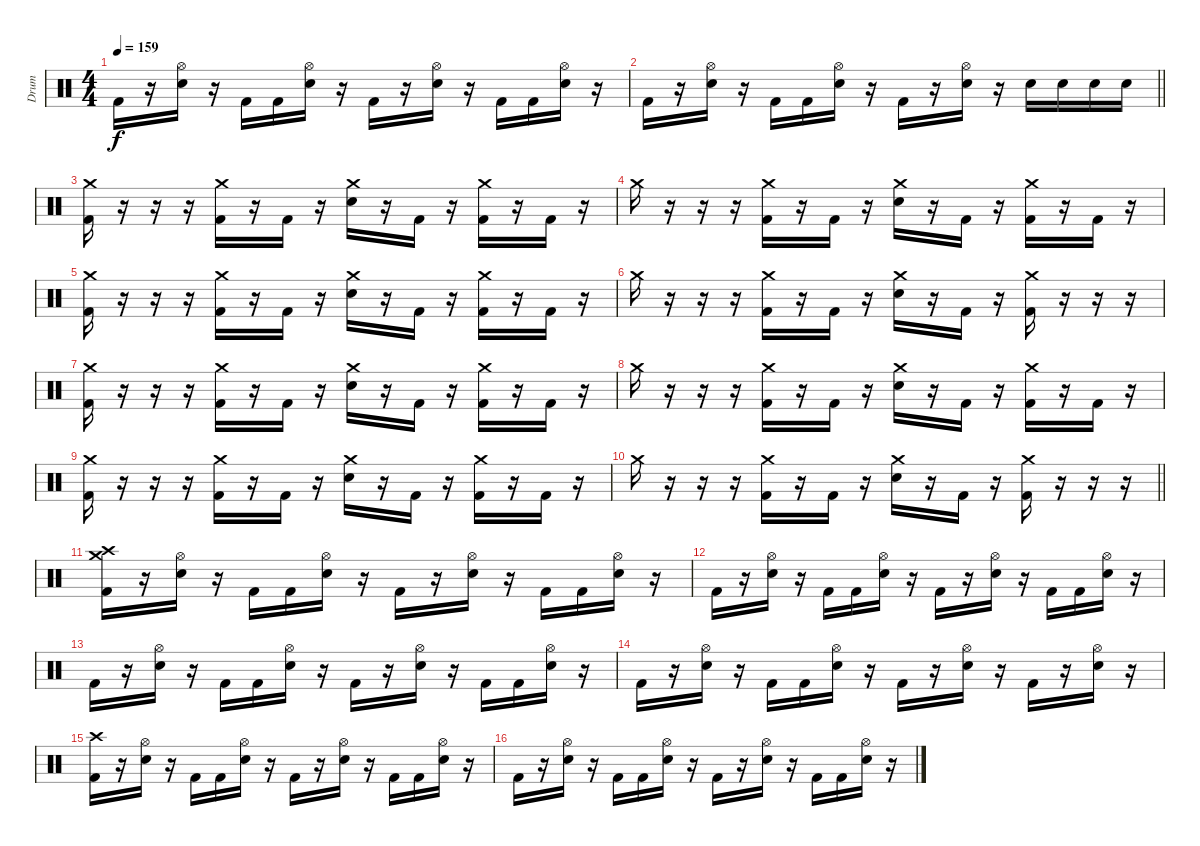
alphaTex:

\track ("Drum" "Drum") {instrument percussion}
\staff {score}
\articulation defaults
\ts (4 4)
\tempo 159
\clef neutral
\ks c "Kick (hit) 2".16{dy f}
r.16 ("Hi-Hat (open)" "Snare (hit) 2").16 r.16 "Kick (hit) 2".16 "Kick (hit) 2".16 ("Hi-Hat (open)" "Snare (hit) 2").16 r.16 "Kick (hit) 2".16 r.16 ("Hi-Hat (open)" "Snare (hit) 2").16 r.16 "Kick (hit) 2".16 "Kick (hit) 2".16 ("Hi-Hat (open)" "Snare (hit) 2").16 r.16 |
\barLineRight lightlight "Kick (hit) 2".16
r.16 ("Hi-Hat (open)" "Snare (hit) 2").16 r.16 "Kick (hit) 2".16 "Kick (hit) 2".16 ("Hi-Hat (open)" "Snare (hit) 2").16 r.16 "Kick (hit) 2".16 r.16 ("Hi-Hat (open)" "Snare (hit) 2").16 r.16 "Snare (hit) 2".16 "Snare (hit) 2".16 "Snare (hit) 2".16 "Snare (hit) 2".16 |
\section ("" "")
("Crash medium (hit)" "Kick (hit) 2").16 r.16 r.16 r.16 ("Crash medium (hit)" "Kick (hit) 2").16 r.16 "Kick (hit) 2".16 r.16 ("Crash medium (hit)" "Snare (hit) 2").16 r.16 "Kick (hit) 2".16 r.16 ("Crash medium (hit)" "Kick (hit) 2").16 r.16 "Kick (hit) 2".16 r.16 |
"Crash medium (hit)".16 r.16 r.16 r.16 ("Crash medium (hit)" "Kick (hit) 2").16 r.16 "Kick (hit) 2".16 r.16 ("Crash medium (hit)" "Snare (hit) 2").16 r.16 "Kick (hit) 2".16 r.16 ("Crash medium (hit)" "Kick (hit) 2").16 r.16 "Kick (hit) 2".16 r.16 |
("Crash medium (hit)" "Kick (hit) 2").16 r.16 r.16 r.16 ("Crash medium (hit)" "Kick (hit) 2").16 r.16 "Kick (hit) 2".16 r.16 ("Crash medium (hit)" "Snare (hit) 2").16 r.16 "Kick (hit) 2".16 r.16 ("Crash medium (hit)" "Kick (hit) 2").16 r.16 "Kick (hit) 2".16 r.16 |
"Crash medium (hit)".16 r.16 r.16 r.16 ("Crash medium (hit)" "Kick (hit) 2").16 r.16 "Kick (hit) 2".16 r.16 ("Crash medium (hit)" "Snare (hit) 2").16 r.16 "Kick (hit) 2".16 r.16 ("Crash medium (hit)" "Kick (hit) 2").16 r.16 r.16 r.16 |
("Crash medium (hit)" "Kick (hit) 2").16 r.16 r.16 r.16 ("Crash medium (hit)" "Kick (hit) 2").16 r.16 "Kick (hit) 2".16 r.16 ("Crash medium (hit)" "Snare (hit) 2").16 r.16 "Kick (hit) 2".16 r.16 ("Crash medium (hit)" "Kick (hit) 2").16 r.16 "Kick (hit) 2".16 r.16 |
"Crash medium (hit)".16 r.16 r.16 r.16 ("Crash medium (hit)" "Kick (hit) 2").16 r.16 "Kick (hit) 2".16 r.16 ("Crash medium (hit)" "Snare (hit) 2").16 r.16 "Kick (hit) 2".16 r.16 ("Crash medium (hit)" "Kick (hit) 2").16 r.16 "Kick (hit) 2".16 r.16 |
("Crash medium (hit)" "Kick (hit) 2").16 r.16 r.16 r.16 ("Crash medium (hit)" "Kick (hit) 2").16 r.16 "Kick (hit) 2".16 r.16 ("Crash medium (hit)" "Snare (hit) 2").16 r.16 "Kick (hit) 2".16 r.16 ("Crash medium (hit)" "Kick (hit) 2").16 r.16 "Kick (hit) 2".16 r.16 |
\barLineRight lightlight "Crash medium (hit)".16
r.16 r.16 r.16 ("Crash medium (hit)" "Kick (hit) 2").16 r.16 "Kick (hit) 2".16 r.16 ("Crash medium (hit)" "Snare (hit) 2").16 r.16 "Kick (hit) 2".16 r.16 ("Crash medium (hit)" "Kick (hit) 2").16 r.16 r.16 r.16 |
\section ("" "")
("Crash medium (hit)" "Crash high (hit)" "Kick (hit) 2").16 r.16 ("Hi-Hat (open)" "Snare (hit) 2").16 r.16 "Kick (hit) 2".16 "Kick (hit) 2".16 ("Hi-Hat (open)" "Snare (hit) 2").16 r.16 "Kick (hit) 2".16 r.16 ("Hi-Hat (open)" "Snare (hit) 2").16 r.16 "Kick (hit) 2".16 "Kick (hit) 2".16 ("Hi-Hat (open)" "Snare (hit) 2").16 r.16 |
"Kick (hit) 2".16 r.16 ("Hi-Hat (open)" "Snare (hit) 2").16 r.16 "Kick (hit) 2".16 "Kick (hit) 2".16 ("Hi-Hat (open)" "Snare (hit) 2").16 r.16 "Kick (hit) 2".16 r.16 ("Hi-Hat (open)" "Snare (hit) 2").16 r.16 "Kick (hit) 2".16 "Kick (hit) 2".16 ("Hi-Hat (open)" "Snare (hit) 2").16 r.16 |
"Kick (hit) 2".16 r.16 ("Hi-Hat (open)" "Snare (hit) 2").16 r.16 "Kick (hit) 2".16 "Kick (hit) 2".16 ("Hi-Hat (open)" "Snare (hit) 2").16 r.16 "Kick (hit) 2".16 r.16 ("Hi-Hat (open)" "Snare (hit) 2").16 r.16 "Kick (hit) 2".16 "Kick (hit) 2".16 ("Hi-Hat (open)" "Snare (hit) 2").16 r.16 |
"Kick (hit) 2".16 r.16 ("Hi-Hat (open)" "Snare (hit) 2").16 r.16 "Kick (hit) 2".16 "Kick (hit) 2".16 ("Hi-Hat (open)" "Snare (hit) 2").16 r.16 "Kick (hit) 2".16 r.16 ("Hi-Hat (open)" "Snare (hit) 2").16 r.16 "Kick (hit) 2".16 r.16 ("Hi-Hat (open)" "Snare (hit) 2").16 r.16 |
("Crash high (hit)" "Kick (hit) 2").16 r.16 ("Hi-Hat (open)" "Snare (hit) 2").16 r.16 "Kick (hit) 2".16 "Kick (hit) 2".16 ("Hi-Hat (open)" "Snare (hit) 2").16 r.16 "Kick (hit) 2".16 r.16 ("Hi-Hat (open)" "Snare (hit) 2").16 r.16 "Kick (hit) 2".16 "Kick (hit) 2".16 ("Hi-Hat (open)" "Snare (hit) 2").16 r.16 |
"Kick (hit) 2".16 r.16 ("Hi-Hat (open)" "Snare (hit) 2").16 r.16 "Kick (hit) 2".16 "Kick (hit) 2".16 ("Hi-Hat (open)" "Snare (hit) 2").16 r.16 "Kick (hit) 2".16 r.16 ("Hi-Hat (open)" "Snare (hit) 2").16 r.16 "Kick (hit) 2".16 "Kick (hit) 2".16 ("Hi-Hat (open)" "Snare (hit) 2").16 r.16
